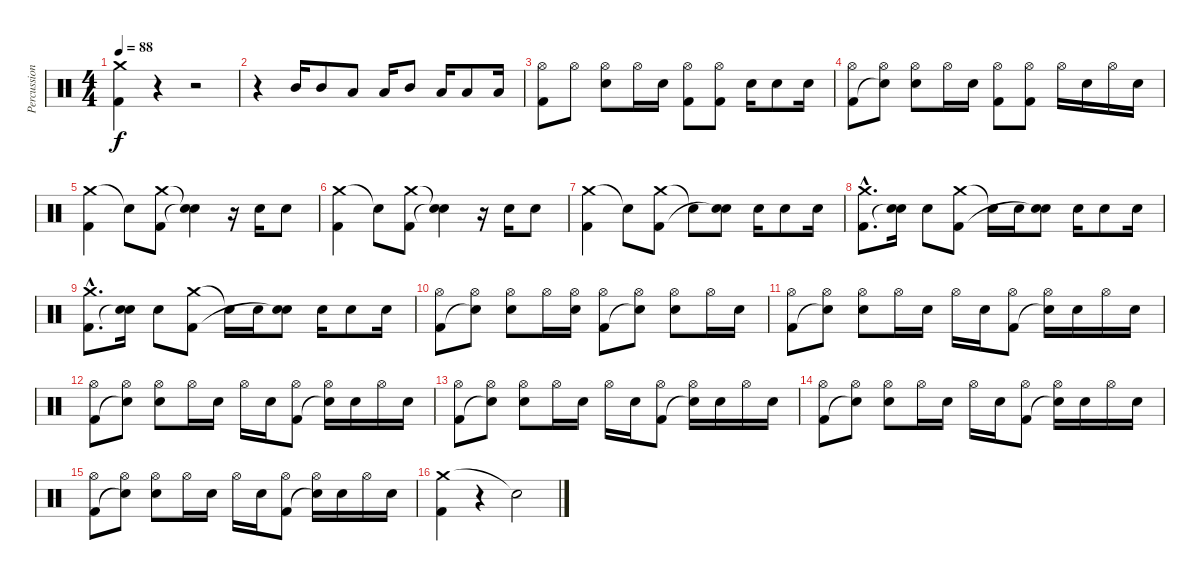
\track ("Percussion" "Percussion") {instrument percussion}
\staff {score}
\articulation defaults
\ts (4 4)
\tempo 88
\clef neutral
\ks c
("Crash medium (hit)" "Kick (hit) 2").4{dy f} r.4 r.2 |
r.4 "Mid Tom (hit)".16 "Mid Tom (hit)".8 "Low Tom (hit)".8 "Low Tom (hit)".16 "Mid Tom (hit)".8 "Low Tom (hit)".16 "Low Tom (hit)".8 "Low Tom (hit)".16 |
("Hi-Hat (open)" "Kick (hit) 2").8 "Hi-Hat (open)".8 ("Hi-Hat (open)" "Snare (hit) 2").8 "Hi-Hat (open)".16 "Snare (hit) 2".16 ("Hi-Hat (open)" "Kick (hit) 2").8 ("Hi-Hat (open)" "Kick (hit) 2").8 "Snare (hit) 2".16 "Snare (hit) 2".8 "Snare (hit) 2".16 |
("Hi-Hat (open)" "Kick (hit) 2").8 ("Hi-Hat (open)" "Snare (hit)"{t}).8 ("Hi-Hat (open)" "Snare (hit) 2").8 "Hi-Hat (open)".16 "Snare (hit) 2".16 ("Hi-Hat (open)" "Kick (hit) 2").8 ("Hi-Hat (open)" "Kick (hit) 2").8 "Hi-Hat (open)".16 "Snare (hit) 2".16 "Hi-Hat (open)".16 "Snare (hit) 2".16 |
("Crash medium (hit)" "Kick (hit) 2").4 "Snare (hit)"{t}.8 ("Crash medium (hit)" "Kick (hit) 2").8 ("Snare (hit)"{t} "Snare (hit)"{t}).4 r.16 "Snare (hit) 2".16 "Snare (hit) 2".8 |
("Crash medium (hit)" "Kick (hit) 2").4 "Snare (hit)"{t}.8 ("Crash medium (hit)" "Kick (hit) 2").8 ("Snare (hit)"{t} "Snare (hit)"{t}).4 r.16 "Snare (hit) 2".16 "Snare (hit) 2".8 |
("Crash medium (hit)" "Kick (hit) 2").4 "Snare (hit)"{t}.8 ("Crash medium (hit)" "Kick (hit) 2").8 "Snare (hit)"{t}.8 ("Snare (hit) 2" "Snare (hit)"{t}).8 "Snare (hit) 2".16 "Snare (hit) 2".8 "Snare (hit) 2".16 |
("Crash medium (hit)"{hac} "Kick (hit) 2"{hac}).8{d} ("Snare (hit) 2" "Snare (hit)"{t}).16 "Snare (hit) 2".8 ("Crash medium (hit)" "Kick (hit) 2").8 "Snare (hit)"{t}.16 "Snare (hit) 2".16 ("Snare (hit) 2" "Snare (hit)"{t}).8 "Snare (hit) 2".16 "Snare (hit) 2".8 "Snare (hit) 2".16 |
("Crash medium (hit)"{hac} "Kick (hit) 2"{hac}).8{d} ("Snare (hit) 2" "Snare (hit)"{t}).16 "Snare (hit) 2".8 ("Crash medium (hit)" "Kick (hit) 2").8 "Snare (hit)"{t}.16 "Snare (hit) 2".16 ("Snare (hit) 2" "Snare (hit)"{t}).8 "Snare (hit) 2".16 "Snare (hit) 2".8 "Snare (hit) 2".16 |
("Hi-Hat (open)" "Kick (hit) 2").8 ("Hi-Hat (open)" "Snare (hit)"{t}).8 ("Hi-Hat (open)" "Snare (hit) 2").8 "Hi-Hat (open)".16 ("Hi-Hat (open)" "Snare (hit) 2").16 ("Hi-Hat (open)" "Kick (hit) 2").8 ("Hi-Hat (open)" "Snare (hit)"{t}).8 ("Hi-Hat (open)" "Snare (hit) 2").8 "Hi-Hat (open)".16 "Snare (hit) 2".16 |
("Hi-Hat (open)" "Kick (hit) 2").8 ("Hi-Hat (open)" "Snare (hit)"{t}).8 ("Hi-Hat (open)" "Snare (hit) 2").8 "Hi-Hat (open)".16 "Snare (hit) 2".16 "Hi-Hat (open)".16 "Snare (hit) 2".16 ("Hi-Hat (open)" "Kick (hit) 2").8 ("Hi-Hat (open)" "Snare (hit)"{t}).16 "Snare (hit) 2".16 "Hi-Hat (open)".16 "Snare (hit) 2".16 |
("Hi-Hat (open)" "Kick (hit) 2").8 ("Hi-Hat (open)" "Snare (hit)"{t}).8 ("Hi-Hat (open)" "Snare (hit) 2").8 "Hi-Hat (open)".16 "Snare (hit) 2".16 "Hi-Hat (open)".16 "Snare (hit) 2".16 ("Hi-Hat (open)" "Kick (hit) 2").8 ("Hi-Hat (open)" "Snare (hit)"{t}).16 "Snare (hit) 2".16 "Hi-Hat (open)".16 "Snare (hit) 2".16 |
("Hi-Hat (open)" "Kick (hit) 2").8 ("Hi-Hat (open)" "Snare (hit)"{t}).8 ("Hi-Hat (open)" "Snare (hit) 2").8 "Hi-Hat (open)".16 "Snare (hit) 2".16 "Hi-Hat (open)".16 "Snare (hit) 2".16 ("Hi-Hat (open)" "Kick (hit) 2").8 ("Hi-Hat (open)" "Snare (hit)"{t}).16 "Snare (hit) 2".16 "Hi-Hat (open)".16 "Snare (hit) 2".16 |
("Hi-Hat (open)" "Kick (hit) 2").8 ("Hi-Hat (open)" "Snare (hit)"{t}).8 ("Hi-Hat (open)" "Snare (hit) 2").8 "Hi-Hat (open)".16 "Snare (hit) 2".16 "Hi-Hat (open)".16 "Snare (hit) 2".16 ("Hi-Hat (open)" "Kick (hit) 2").8 ("Hi-Hat (open)" "Snare (hit)"{t}).16 "Snare (hit) 2".16 "Hi-Hat (open)".16 "Snare (hit) 2".16 |
("Hi-Hat (open)" "Kick (hit) 2").8 ("Hi-Hat (open)" "Snare (hit)"{t}).8 ("Hi-Hat (open)" "Snare (hit) 2").8 "Hi-Hat (open)".16 "Snare (hit) 2".16 "Hi-Hat (open)".16 "Snare (hit) 2".16 ("Hi-Hat (open)" "Kick (hit) 2").8 ("Hi-Hat (open)" "Snare (hit)"{t}).16 "Snare (hit) 2".16 "Hi-Hat (open)".16 "Snare (hit) 2".16 |
("Crash medium (hit)" "Kick (hit) 2").4 r.4 "Snare (hit)"{t}.2
